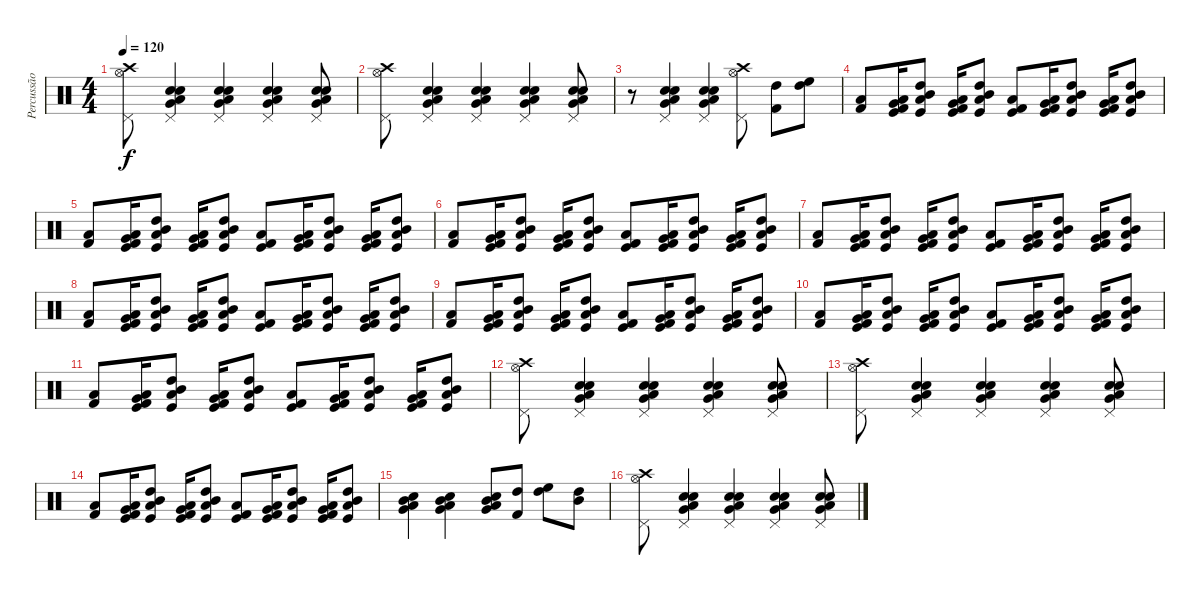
\track ("Percussão" "Percussão") {instrument percussion}
\staff {score}
\articulation defaults
\ts (4 4)
\tempo 120
\clef neutral
\ks c
("Hi-Hat (open)" "Crash high (hit)" "Pedal Hi-Hat (hit)").8{dy f} ("Pedal Hi-Hat (hit)" "Snare (hit) 2" "Electric Snare (hit)" "Low Tom (hit)" "Very Low Tom (hit)").4 ("Pedal Hi-Hat (hit)" "Snare (hit) 2" "Electric Snare (hit)" "Low Tom (hit)" "Very Low Tom (hit)").4 ("Pedal Hi-Hat (hit)" "Snare (hit) 2" "Electric Snare (hit)" "Low Tom (hit)" "Very Low Tom (hit)").4 ("Pedal Hi-Hat (hit)" "Snare (hit) 2" "Electric Snare (hit)" "Low Tom (hit)" "Very Low Tom (hit)").8 |
("Hi-Hat (open)" "Crash high (hit)" "Pedal Hi-Hat (hit)").8 ("Pedal Hi-Hat (hit)" "Snare (hit) 2" "Electric Snare (hit)" "Low Tom (hit)" "Very Low Tom (hit)").4 ("Pedal Hi-Hat (hit)" "Snare (hit) 2" "Electric Snare (hit)" "Low Tom (hit)" "Very Low Tom (hit)").4 ("Pedal Hi-Hat (hit)" "Snare (hit) 2" "Electric Snare (hit)" "Low Tom (hit)" "Very Low Tom (hit)").4 ("Pedal Hi-Hat (hit)" "Snare (hit) 2" "Electric Snare (hit)" "Low Tom (hit)" "Very Low Tom (hit)").8 |
r.8 ("Pedal Hi-Hat (hit)" "Snare (hit) 2" "Electric Snare (hit)" "Low Tom (hit)" "Very Low Tom (hit)").4 ("Pedal Hi-Hat (hit)" "Snare (hit) 2" "Electric Snare (hit)" "Low Tom (hit)" "Very Low Tom (hit)").4 ("Hi-Hat (open)" "Crash high (hit)" "Pedal Hi-Hat (hit)").8 ("High Tom (hit)" "Kick (hit) 2").8 ("High Tom (hit)" "High Floor Tom (hit)").8 |
("Kick (hit) 2" "Low Floor Tom (hit)").8 ("Low Tom (hit)" "Kick (hit) 2" "Very Low Tom (hit)" "Kick (hit)").16 ("Low Tom (hit)" "Mid Tom (hit)" "Kick (hit)" "High Tom (hit)").8 ("Low Tom (hit)" "Kick (hit) 2" "Very Low Tom (hit)" "Kick (hit)").16 ("Low Tom (hit)" "Mid Tom (hit)" "Kick (hit)" "High Tom (hit)").8 ("Kick (hit) 2" "Kick (hit)" "Low Floor Tom (hit)").8 ("Low Tom (hit)" "Kick (hit) 2" "Very Low Tom (hit)" "Kick (hit)").16 ("Low Tom (hit)" "Mid Tom (hit)" "Kick (hit)" "High Tom (hit)").8 ("Low Tom (hit)" "Kick (hit) 2" "Very Low Tom (hit)" "Kick (hit)").16 ("Low Tom (hit)" "Mid Tom (hit)" "Kick (hit)" "High Tom (hit)").8 |
("Kick (hit) 2" "Low Floor Tom (hit)").8 ("Low Tom (hit)" "Kick (hit) 2" "Very Low Tom (hit)" "Kick (hit)").16 ("Low Tom (hit)" "Mid Tom (hit)" "Kick (hit)" "High Tom (hit)").8 ("Low Tom (hit)" "Kick (hit) 2" "Very Low Tom (hit)" "Kick (hit)").16 ("Low Tom (hit)" "Mid Tom (hit)" "Kick (hit)" "High Tom (hit)").8 ("Kick (hit) 2" "Kick (hit)" "Low Floor Tom (hit)").8 ("Low Tom (hit)" "Kick (hit) 2" "Very Low Tom (hit)" "Kick (hit)").16 ("Low Tom (hit)" "Mid Tom (hit)" "Kick (hit)" "High Tom (hit)").8 ("Low Tom (hit)" "Kick (hit) 2" "Very Low Tom (hit)" "Kick (hit)").16 ("Low Tom (hit)" "Mid Tom (hit)" "Kick (hit)" "High Tom (hit)").8 |
("Kick (hit) 2" "Low Floor Tom (hit)").8 ("Low Tom (hit)" "Kick (hit) 2" "Very Low Tom (hit)" "Kick (hit)").16 ("Low Tom (hit)" "Mid Tom (hit)" "Kick (hit)" "High Tom (hit)").8 ("Low Tom (hit)" "Kick (hit) 2" "Very Low Tom (hit)" "Kick (hit)").16 ("Low Tom (hit)" "Mid Tom (hit)" "Kick (hit)" "High Tom (hit)").8 ("Kick (hit) 2" "Kick (hit)" "Low Floor Tom (hit)").8 ("Low Tom (hit)" "Kick (hit) 2" "Very Low Tom (hit)" "Kick (hit)").16 ("Low Tom (hit)" "Mid Tom (hit)" "Kick (hit)" "High Tom (hit)").8 ("Low Tom (hit)" "Kick (hit) 2" "Very Low Tom (hit)" "Kick (hit)").16 ("Low Tom (hit)" "Mid Tom (hit)" "Kick (hit)" "High Tom (hit)").8 |
("Kick (hit) 2" "Low Floor Tom (hit)").8 ("Low Tom (hit)" "Kick (hit) 2" "Very Low Tom (hit)" "Kick (hit)").16 ("Low Tom (hit)" "Mid Tom (hit)" "Kick (hit)" "High Tom (hit)").8 ("Low Tom (hit)" "Kick (hit) 2" "Very Low Tom (hit)" "Kick (hit)").16 ("Low Tom (hit)" "Mid Tom (hit)" "Kick (hit)" "High Tom (hit)").8 ("Kick (hit) 2" "Kick (hit)" "Low Floor Tom (hit)").8 ("Low Tom (hit)" "Kick (hit) 2" "Very Low Tom (hit)" "Kick (hit)").16 ("Low Tom (hit)" "Mid Tom (hit)" "Kick (hit)" "High Tom (hit)").8 ("Low Tom (hit)" "Kick (hit) 2" "Very Low Tom (hit)" "Kick (hit)").16 ("Low Tom (hit)" "Mid Tom (hit)" "Kick (hit)" "High Tom (hit)").8 |
("Kick (hit) 2" "Low Floor Tom (hit)").8 ("Low Tom (hit)" "Kick (hit) 2" "Very Low Tom (hit)" "Kick (hit)").16 ("Low Tom (hit)" "Mid Tom (hit)" "Kick (hit)" "High Tom (hit)").8 ("Low Tom (hit)" "Kick (hit) 2" "Very Low Tom (hit)" "Kick (hit)").16 ("Low Tom (hit)" "Mid Tom (hit)" "Kick (hit)" "High Tom (hit)").8 ("Kick (hit) 2" "Kick (hit)" "Low Floor Tom (hit)").8 ("Low Tom (hit)" "Kick (hit) 2" "Very Low Tom (hit)" "Kick (hit)").16 ("Low Tom (hit)" "Mid Tom (hit)" "Kick (hit)" "High Tom (hit)").8 ("Low Tom (hit)" "Kick (hit) 2" "Very Low Tom (hit)" "Kick (hit)").16 ("Low Tom (hit)" "Mid Tom (hit)" "Kick (hit)" "High Tom (hit)").8 |
("Kick (hit) 2" "Low Floor Tom (hit)").8 ("Low Tom (hit)" "Kick (hit) 2" "Very Low Tom (hit)" "Kick (hit)").16 ("Low Tom (hit)" "Mid Tom (hit)" "Kick (hit)" "High Tom (hit)").8 ("Low Tom (hit)" "Kick (hit) 2" "Very Low Tom (hit)" "Kick (hit)").16 ("Low Tom (hit)" "Mid Tom (hit)" "Kick (hit)" "High Tom (hit)").8 ("Kick (hit) 2" "Kick (hit)" "Low Floor Tom (hit)").8 ("Low Tom (hit)" "Kick (hit) 2" "Very Low Tom (hit)" "Kick (hit)").16 ("Low Tom (hit)" "Mid Tom (hit)" "Kick (hit)" "High Tom (hit)").8 ("Low Tom (hit)" "Kick (hit) 2" "Very Low Tom (hit)" "Kick (hit)").16 ("Low Tom (hit)" "Mid Tom (hit)" "Kick (hit)" "High Tom (hit)").8 |
("Kick (hit) 2" "Low Floor Tom (hit)").8 ("Low Tom (hit)" "Kick (hit) 2" "Very Low Tom (hit)" "Kick (hit)").16 ("Low Tom (hit)" "Mid Tom (hit)" "Kick (hit)" "High Tom (hit)").8 ("Low Tom (hit)" "Kick (hit) 2" "Very Low Tom (hit)" "Kick (hit)").16 ("Low Tom (hit)" "Mid Tom (hit)" "Kick (hit)" "High Tom (hit)").8 ("Kick (hit) 2" "Kick (hit)" "Low Floor Tom (hit)").8 ("Low Tom (hit)" "Kick (hit) 2" "Very Low Tom (hit)" "Kick (hit)").16 ("Low Tom (hit)" "Mid Tom (hit)" "Kick (hit)" "High Tom (hit)").8 ("Low Tom (hit)" "Kick (hit) 2" "Very Low Tom (hit)" "Kick (hit)").16 ("Low Tom (hit)" "Mid Tom (hit)" "Kick (hit)" "High Tom (hit)").8 |
("Kick (hit) 2" "Low Floor Tom (hit)").8 ("Low Tom (hit)" "Kick (hit) 2" "Very Low Tom (hit)" "Kick (hit)").16 ("Low Tom (hit)" "Mid Tom (hit)" "Kick (hit)" "High Tom (hit)").8 ("Low Tom (hit)" "Kick (hit) 2" "Very Low Tom (hit)" "Kick (hit)").16 ("Low Tom (hit)" "Mid Tom (hit)" "Kick (hit)" "High Tom (hit)").8 ("Kick (hit) 2" "Kick (hit)" "Low Floor Tom (hit)").8 ("Low Tom (hit)" "Kick (hit) 2" "Very Low Tom (hit)" "Kick (hit)").16 ("Low Tom (hit)" "Mid Tom (hit)" "Kick (hit)" "High Tom (hit)").8 ("Low Tom (hit)" "Kick (hit) 2" "Very Low Tom (hit)" "Kick (hit)").16 ("Low Tom (hit)" "Mid Tom (hit)" "Kick (hit)" "High Tom (hit)").8 |
("Hi-Hat (open)" "Crash high (hit)" "Pedal Hi-Hat (hit)").8 ("Pedal Hi-Hat (hit)" "Snare (hit) 2" "Electric Snare (hit)" "Low Tom (hit)" "Very Low Tom (hit)").4 ("Pedal Hi-Hat (hit)" "Snare (hit) 2" "Electric Snare (hit)" "Low Tom (hit)" "Very Low Tom (hit)").4 ("Pedal Hi-Hat (hit)" "Snare (hit) 2" "Electric Snare (hit)" "Low Tom (hit)" "Very Low Tom (hit)").4 ("Pedal Hi-Hat (hit)" "Snare (hit) 2" "Electric Snare (hit)" "Low Tom (hit)" "Very Low Tom (hit)").8 |
("Hi-Hat (open)" "Crash high (hit)" "Pedal Hi-Hat (hit)").8 ("Pedal Hi-Hat (hit)" "Snare (hit) 2" "Electric Snare (hit)" "Low Tom (hit)" "Very Low Tom (hit)").4 ("Pedal Hi-Hat (hit)" "Snare (hit) 2" "Electric Snare (hit)" "Low Tom (hit)" "Very Low Tom (hit)").4 ("Pedal Hi-Hat (hit)" "Snare (hit) 2" "Electric Snare (hit)" "Low Tom (hit)" "Very Low Tom (hit)").4 ("Pedal Hi-Hat (hit)" "Snare (hit) 2" "Electric Snare (hit)" "Low Tom (hit)" "Very Low Tom (hit)").8 |
("Kick (hit) 2" "Low Floor Tom (hit)").8 ("Low Tom (hit)" "Kick (hit) 2" "Very Low Tom (hit)" "Kick (hit)").16 ("Low Tom (hit)" "Mid Tom (hit)" "Kick (hit)" "High Tom (hit)").8 ("Low Tom (hit)" "Kick (hit) 2" "Very Low Tom (hit)" "Kick (hit)").16 ("Low Tom (hit)" "Mid Tom (hit)" "Kick (hit)" "High Tom (hit)").8 ("Kick (hit) 2" "Kick (hit)" "Low Floor Tom (hit)").8 ("Low Tom (hit)" "Kick (hit) 2" "Very Low Tom (hit)" "Kick (hit)").16 ("Low Tom (hit)" "Mid Tom (hit)" "Kick (hit)" "High Tom (hit)").8 ("Low Tom (hit)" "Kick (hit) 2" "Very Low Tom (hit)" "Kick (hit)").16 ("Low Tom (hit)" "Mid Tom (hit)" "Kick (hit)" "High Tom (hit)").8 |
("Low Tom (hit)" "Snare (hit) 2" "Mid Tom (hit)" "Very Low Tom (hit)").4 ("Low Tom (hit)" "Snare (hit) 2" "Mid Tom (hit)" "Very Low Tom (hit)").4 ("Low Tom (hit)" "Snare (hit) 2" "Mid Tom (hit)" "Very Low Tom (hit)").8 ("High Tom (hit)" "Kick (hit) 2").8 ("High Tom (hit)" "High Floor Tom (hit)").8 ("High Tom (hit)" "Mid Tom (hit)").8 |
("Hi-Hat (open)" "Crash high (hit)" "Pedal Hi-Hat (hit)").8 ("Pedal Hi-Hat (hit)" "Snare (hit) 2" "Electric Snare (hit)" "Low Tom (hit)" "Very Low Tom (hit)").4 ("Pedal Hi-Hat (hit)" "Snare (hit) 2" "Electric Snare (hit)" "Low Tom (hit)" "Very Low Tom (hit)").4 ("Pedal Hi-Hat (hit)" "Snare (hit) 2" "Electric Snare (hit)" "Low Tom (hit)" "Very Low Tom (hit)").4 ("Pedal Hi-Hat (hit)" "Snare (hit) 2" "Electric Snare (hit)" "Low Tom (hit)" "Very Low Tom (hit)").8
